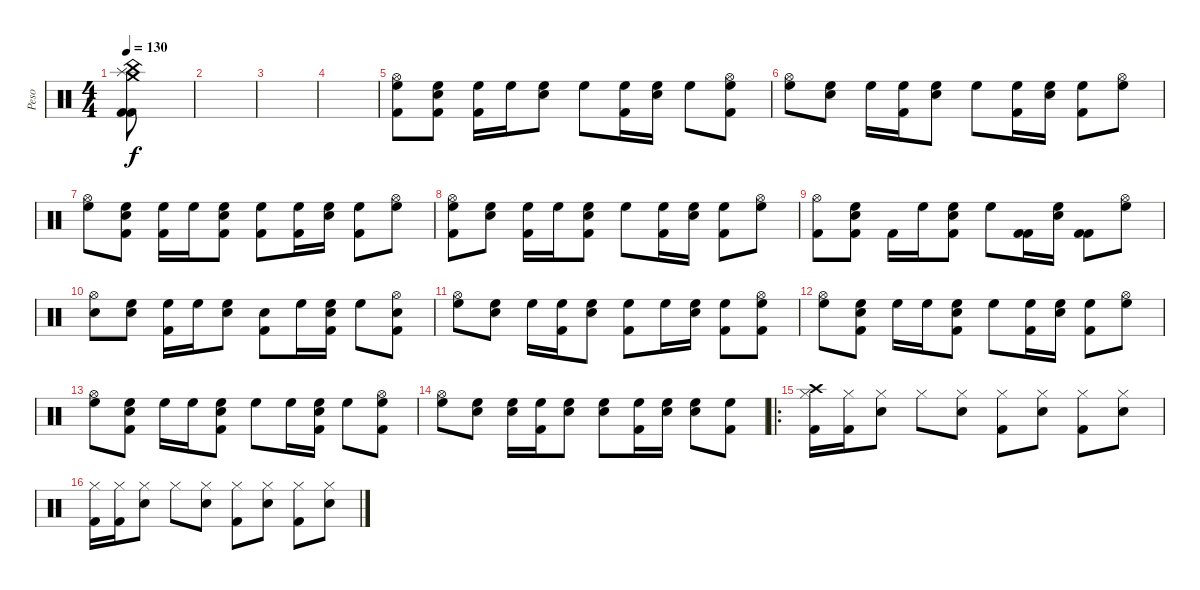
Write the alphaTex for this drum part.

\track ("Peso" "Peso") {instrument percussion}
\staff {score}
\articulation defaults
\ts (4 4)
\tempo 130
\clef neutral
\ks c
("Crash medium (hit)" "Splash (hit)" "China (hit)" "Kick (hit) 2" "Kick (hit) 2").8{dy f} |
|
|
|
("Hi-Hat (open)" "High Floor Tom (hit)" "Kick (hit) 2").8 ("Snare (hit) 2" "High Floor Tom (hit)" "Kick (hit) 2").8 ("High Floor Tom (hit)" "Kick (hit) 2").16 "High Floor Tom (hit)".16 ("Snare (hit) 2" "High Floor Tom (hit)").8 "High Floor Tom (hit)".8 ("High Floor Tom (hit)" "Kick (hit) 2").16 ("Snare (hit) 2" "High Floor Tom (hit)").16 "High Floor Tom (hit)".8 ("Hi-Hat (open)" "High Floor Tom (hit)" "Kick (hit) 2").8 |
("Hi-Hat (open)" "High Floor Tom (hit)").8 ("Snare (hit) 2" "High Floor Tom (hit)").8 "High Floor Tom (hit)".16 ("High Floor Tom (hit)" "Kick (hit) 2").16 ("Snare (hit) 2" "High Floor Tom (hit)").8 "High Floor Tom (hit)".8 ("High Floor Tom (hit)" "Kick (hit) 2").16 ("Snare (hit) 2" "High Floor Tom (hit)").16 ("High Floor Tom (hit)" "Kick (hit) 2").8 ("Hi-Hat (open)" "High Floor Tom (hit)").8 |
("Hi-Hat (open)" "High Floor Tom (hit)").8 ("Snare (hit) 2" "High Floor Tom (hit)" "Kick (hit) 2").8 ("High Floor Tom (hit)" "Kick (hit) 2").16 "High Floor Tom (hit)".16 ("Snare (hit) 2" "High Floor Tom (hit)" "Kick (hit) 2").8 ("High Floor Tom (hit)" "Kick (hit) 2").8 ("High Floor Tom (hit)" "Kick (hit) 2").16 ("Snare (hit) 2" "High Floor Tom (hit)").16 ("High Floor Tom (hit)" "Kick (hit) 2").8 ("Hi-Hat (open)" "High Floor Tom (hit)").8 |
("Hi-Hat (open)" "High Floor Tom (hit)" "Kick (hit) 2").8 ("Snare (hit) 2" "High Floor Tom (hit)").8 ("High Floor Tom (hit)" "Kick (hit) 2").16 "High Floor Tom (hit)".16 ("Snare (hit) 2" "High Floor Tom (hit)" "Kick (hit) 2").8 "High Floor Tom (hit)".8 ("High Floor Tom (hit)" "Kick (hit) 2").16 ("Snare (hit) 2" "High Floor Tom (hit)").16 ("High Floor Tom (hit)" "Kick (hit) 2").8 ("Hi-Hat (open)" "High Floor Tom (hit)").8 |
("Hi-Hat (open)" "Kick (hit) 2").8 ("Snare (hit) 2" "High Floor Tom (hit)" "Kick (hit) 2").8 "Kick (hit) 2".16 "High Floor Tom (hit)".16 ("Snare (hit) 2" "High Floor Tom (hit)" "Kick (hit) 2").8 "High Floor Tom (hit)".8 ("Kick (hit) 2" "Kick (hit) 2").16 ("Snare (hit) 2" "High Floor Tom (hit)").16 ("Kick (hit) 2" "Kick (hit) 2").8 ("Hi-Hat (open)" "High Floor Tom (hit)").8 |
("Hi-Hat (open)" "Snare (hit) 2").8 ("Snare (hit) 2" "High Floor Tom (hit)").8 ("High Floor Tom (hit)" "Kick (hit) 2").16 "High Floor Tom (hit)".16 ("Snare (hit) 2" "High Floor Tom (hit)").8 ("Snare (hit) 2" "Kick (hit) 2").8 "High Floor Tom (hit)".16 ("Snare (hit) 2" "High Floor Tom (hit)" "Kick (hit) 2").16 "High Floor Tom (hit)".8 ("Hi-Hat (open)" "Snare (hit) 2" "Kick (hit) 2").8 |
("Hi-Hat (open)" "High Floor Tom (hit)").8 ("Snare (hit) 2" "High Floor Tom (hit)").8 "High Floor Tom (hit)".16 ("High Floor Tom (hit)" "Kick (hit) 2").16 ("Snare (hit) 2" "High Floor Tom (hit)").8 ("High Floor Tom (hit)" "Kick (hit) 2").8 "High Floor Tom (hit)".16 ("Snare (hit) 2" "High Floor Tom (hit)").16 ("High Floor Tom (hit)" "Kick (hit) 2").8 ("Hi-Hat (open)" "High Floor Tom (hit)" "Kick (hit) 2").8 |
("Hi-Hat (open)" "High Floor Tom (hit)").8 ("Snare (hit) 2" "High Floor Tom (hit)" "Kick (hit) 2").8 "High Floor Tom (hit)".16 "High Floor Tom (hit)".16 ("Snare (hit) 2" "High Floor Tom (hit)" "Kick (hit) 2").8 "High Floor Tom (hit)".8 ("High Floor Tom (hit)" "Kick (hit) 2").16 ("Snare (hit) 2" "High Floor Tom (hit)").16 ("High Floor Tom (hit)" "Kick (hit) 2").8 ("Hi-Hat (open)" "High Floor Tom (hit)").8 |
("Hi-Hat (open)" "High Floor Tom (hit)").8 ("Snare (hit) 2" "High Floor Tom (hit)" "Kick (hit) 2").8 "High Floor Tom (hit)".16 "High Floor Tom (hit)".16 ("Snare (hit) 2" "High Floor Tom (hit)" "Kick (hit) 2").8 "High Floor Tom (hit)".8 "High Floor Tom (hit)".16 ("Snare (hit) 2" "High Floor Tom (hit)" "Kick (hit) 2").16 "High Floor Tom (hit)".8 ("Hi-Hat (open)" "High Floor Tom (hit)" "Kick (hit) 2").8 |
("Hi-Hat (open)" "High Floor Tom (hit)").8 ("Snare (hit) 2" "High Floor Tom (hit)").8 ("Snare (hit) 2" "High Floor Tom (hit)").16 ("High Floor Tom (hit)" "Kick (hit) 2").16 ("Snare (hit) 2" "High Floor Tom (hit)").8 ("Snare (hit) 2" "High Floor Tom (hit)").8 ("High Floor Tom (hit)" "Kick (hit) 2").16 ("Snare (hit) 2" "High Floor Tom (hit)").16 ("Snare (hit) 2" "High Floor Tom (hit)").8 ("High Floor Tom (hit)" "Kick (hit) 2").8 |
\ro
("Crash high (hit)" "Hi-Hat (closed)" "Kick (hit) 2").16 ("Hi-Hat (closed)" "Kick (hit) 2").16 ("Hi-Hat (closed)" "Snare (hit) 2").8 "Hi-Hat (closed)".8 ("Hi-Hat (closed)" "Snare (hit) 2").8 ("Hi-Hat (closed)" "Kick (hit) 2").8 ("Hi-Hat (closed)" "Snare (hit) 2").8 ("Hi-Hat (closed)" "Kick (hit) 2").8 ("Hi-Hat (closed)" "Snare (hit) 2").8 |
("Hi-Hat (closed)" "Kick (hit) 2").16 ("Hi-Hat (closed)" "Kick (hit) 2").16 ("Hi-Hat (closed)" "Snare (hit) 2").8 "Hi-Hat (closed)".8 ("Hi-Hat (closed)" "Snare (hit) 2").8 ("Hi-Hat (closed)" "Kick (hit) 2").8 ("Hi-Hat (closed)" "Snare (hit) 2").8 ("Hi-Hat (closed)" "Kick (hit) 2").8 ("Hi-Hat (closed)" "Snare (hit) 2").8
